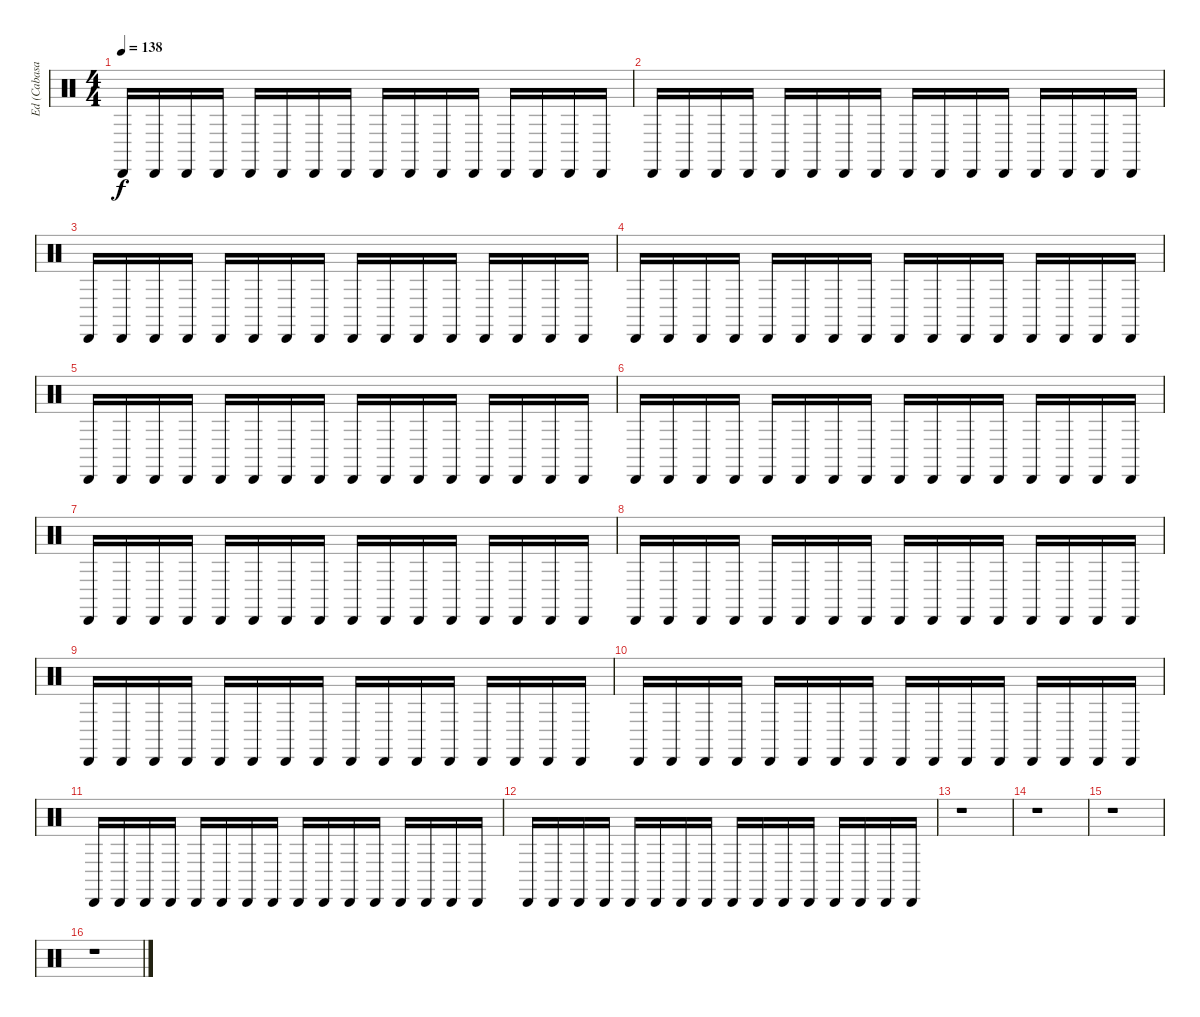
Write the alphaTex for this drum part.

\track ("Ed (Cabasa)" "Ed (Cabasa") {instrument percussion}
\staff {score}
\articulation defaults
\ts (4 4)
\tempo 138
\clef neutral
\ks c "Cabasa (hit)".16{dy f} "Cabasa (hit)".16 "Cabasa (hit)".16 "Cabasa (hit)".16 "Cabasa (hit)".16 "Cabasa (hit)".16 "Cabasa (hit)".16 "Cabasa (hit)".16 "Cabasa (hit)".16 "Cabasa (hit)".16 "Cabasa (hit)".16 "Cabasa (hit)".16 "Cabasa (hit)".16 "Cabasa (hit)".16 "Cabasa (hit)".16 "Cabasa (hit)".16
|
"Cabasa (hit)".16 "Cabasa (hit)".16 "Cabasa (hit)".16 "Cabasa (hit)".16 "Cabasa (hit)".16 "Cabasa (hit)".16 "Cabasa (hit)".16 "Cabasa (hit)".16 "Cabasa (hit)".16 "Cabasa (hit)".16 "Cabasa (hit)".16 "Cabasa (hit)".16 "Cabasa (hit)".16 "Cabasa (hit)".16 "Cabasa (hit)".16 "Cabasa (hit)".16 |
"Cabasa (hit)".16 "Cabasa (hit)".16 "Cabasa (hit)".16 "Cabasa (hit)".16 "Cabasa (hit)".16 "Cabasa (hit)".16 "Cabasa (hit)".16 "Cabasa (hit)".16 "Cabasa (hit)".16 "Cabasa (hit)".16 "Cabasa (hit)".16 "Cabasa (hit)".16 "Cabasa (hit)".16 "Cabasa (hit)".16 "Cabasa (hit)".16 "Cabasa (hit)".16 |
"Cabasa (hit)".16 "Cabasa (hit)".16 "Cabasa (hit)".16 "Cabasa (hit)".16 "Cabasa (hit)".16 "Cabasa (hit)".16 "Cabasa (hit)".16 "Cabasa (hit)".16 "Cabasa (hit)".16 "Cabasa (hit)".16 "Cabasa (hit)".16 "Cabasa (hit)".16 "Cabasa (hit)".16 "Cabasa (hit)".16 "Cabasa (hit)".16 "Cabasa (hit)".16 |
"Cabasa (hit)".16 "Cabasa (hit)".16 "Cabasa (hit)".16 "Cabasa (hit)".16 "Cabasa (hit)".16 "Cabasa (hit)".16 "Cabasa (hit)".16 "Cabasa (hit)".16 "Cabasa (hit)".16 "Cabasa (hit)".16 "Cabasa (hit)".16 "Cabasa (hit)".16 "Cabasa (hit)".16 "Cabasa (hit)".16 "Cabasa (hit)".16 "Cabasa (hit)".16 |
"Cabasa (hit)".16 "Cabasa (hit)".16 "Cabasa (hit)".16 "Cabasa (hit)".16 "Cabasa (hit)".16 "Cabasa (hit)".16 "Cabasa (hit)".16 "Cabasa (hit)".16 "Cabasa (hit)".16 "Cabasa (hit)".16 "Cabasa (hit)".16 "Cabasa (hit)".16 "Cabasa (hit)".16 "Cabasa (hit)".16 "Cabasa (hit)".16 "Cabasa (hit)".16 |
"Cabasa (hit)".16 "Cabasa (hit)".16 "Cabasa (hit)".16 "Cabasa (hit)".16 "Cabasa (hit)".16 "Cabasa (hit)".16 "Cabasa (hit)".16 "Cabasa (hit)".16 "Cabasa (hit)".16 "Cabasa (hit)".16 "Cabasa (hit)".16 "Cabasa (hit)".16 "Cabasa (hit)".16 "Cabasa (hit)".16 "Cabasa (hit)".16 "Cabasa (hit)".16 |
"Cabasa (hit)".16 "Cabasa (hit)".16 "Cabasa (hit)".16 "Cabasa (hit)".16 "Cabasa (hit)".16 "Cabasa (hit)".16 "Cabasa (hit)".16 "Cabasa (hit)".16 "Cabasa (hit)".16 "Cabasa (hit)".16 "Cabasa (hit)".16 "Cabasa (hit)".16 "Cabasa (hit)".16 "Cabasa (hit)".16 "Cabasa (hit)".16 "Cabasa (hit)".16 |
"Cabasa (hit)".16 "Cabasa (hit)".16 "Cabasa (hit)".16 "Cabasa (hit)".16 "Cabasa (hit)".16 "Cabasa (hit)".16 "Cabasa (hit)".16 "Cabasa (hit)".16 "Cabasa (hit)".16 "Cabasa (hit)".16 "Cabasa (hit)".16 "Cabasa (hit)".16 "Cabasa (hit)".16 "Cabasa (hit)".16 "Cabasa (hit)".16 "Cabasa (hit)".16 |
"Cabasa (hit)".16 "Cabasa (hit)".16 "Cabasa (hit)".16 "Cabasa (hit)".16 "Cabasa (hit)".16 "Cabasa (hit)".16 "Cabasa (hit)".16 "Cabasa (hit)".16 "Cabasa (hit)".16 "Cabasa (hit)".16 "Cabasa (hit)".16 "Cabasa (hit)".16 "Cabasa (hit)".16 "Cabasa (hit)".16 "Cabasa (hit)".16 "Cabasa (hit)".16 |
"Cabasa (hit)".16 "Cabasa (hit)".16 "Cabasa (hit)".16 "Cabasa (hit)".16 "Cabasa (hit)".16 "Cabasa (hit)".16 "Cabasa (hit)".16 "Cabasa (hit)".16 "Cabasa (hit)".16 "Cabasa (hit)".16 "Cabasa (hit)".16 "Cabasa (hit)".16 "Cabasa (hit)".16 "Cabasa (hit)".16 "Cabasa (hit)".16 "Cabasa (hit)".16 |
"Cabasa (hit)".16 "Cabasa (hit)".16 "Cabasa (hit)".16 "Cabasa (hit)".16 "Cabasa (hit)".16 "Cabasa (hit)".16 "Cabasa (hit)".16 "Cabasa (hit)".16 "Cabasa (hit)".16 "Cabasa (hit)".16 "Cabasa (hit)".16 "Cabasa (hit)".16 "Cabasa (hit)".16 "Cabasa (hit)".16 "Cabasa (hit)".16 "Cabasa (hit)".16 |
r.1 |
r.1 |
r.1 |
r.1
